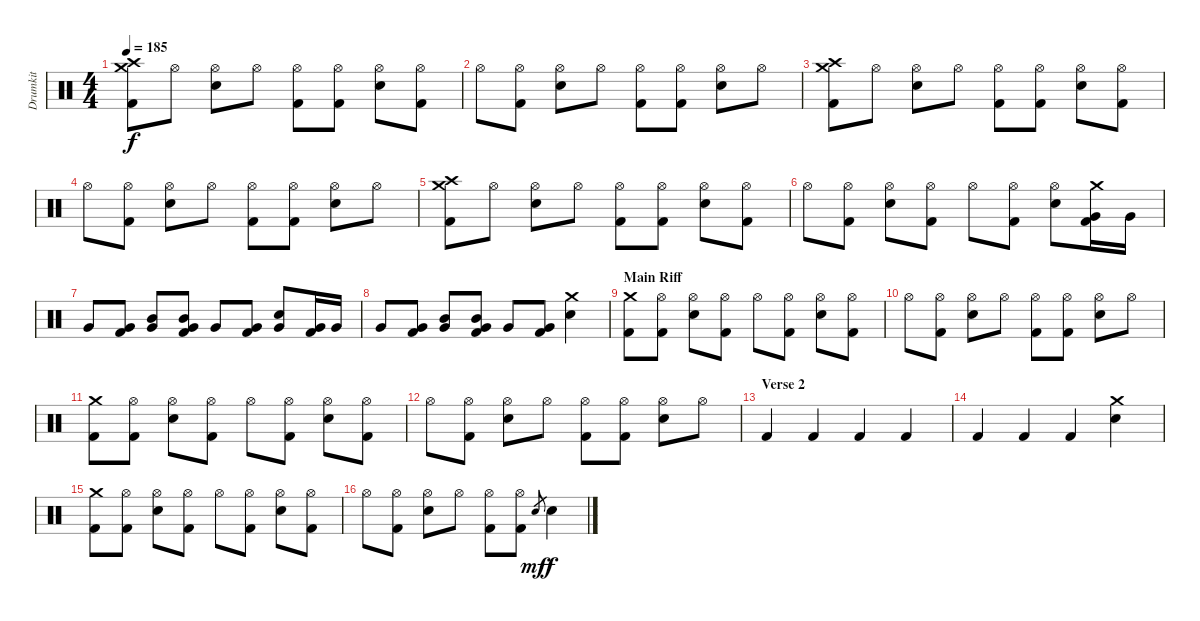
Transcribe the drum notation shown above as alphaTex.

\track ("Drumkit" "Drumkit") {instrument percussion}
\staff {score}
\articulation defaults
\ts (4 4)
\tempo 185
\clef neutral
\ks c
("Crash high (hit)" "Kick (hit) 2" "Crash medium (hit)").8{dy f} "Hi-Hat (open)".8 ("Hi-Hat (open)" "Snare (hit) 2").8 "Hi-Hat (open)".8 ("Hi-Hat (open)" "Kick (hit) 2").8 ("Hi-Hat (open)" "Kick (hit) 2").8 ("Hi-Hat (open)" "Snare (hit) 2").8 ("Hi-Hat (open)" "Kick (hit) 2").8 |
"Hi-Hat (open)".8 ("Hi-Hat (open)" "Kick (hit) 2").8 ("Hi-Hat (open)" "Snare (hit) 2").8 "Hi-Hat (open)".8 ("Hi-Hat (open)" "Kick (hit) 2").8 ("Hi-Hat (open)" "Kick (hit) 2").8 ("Hi-Hat (open)" "Snare (hit) 2").8 "Hi-Hat (open)".8 |
("Crash high (hit)" "Kick (hit) 2" "Crash medium (hit)").8 "Hi-Hat (open)".8 ("Hi-Hat (open)" "Snare (hit) 2").8 "Hi-Hat (open)".8 ("Hi-Hat (open)" "Kick (hit) 2").8 ("Hi-Hat (open)" "Kick (hit) 2").8 ("Hi-Hat (open)" "Snare (hit) 2").8 ("Hi-Hat (open)" "Kick (hit) 2").8 |
"Hi-Hat (open)".8 ("Hi-Hat (open)" "Kick (hit) 2").8 ("Hi-Hat (open)" "Snare (hit) 2").8 "Hi-Hat (open)".8 ("Hi-Hat (open)" "Kick (hit) 2").8 ("Hi-Hat (open)" "Kick (hit) 2").8 ("Hi-Hat (open)" "Snare (hit) 2").8 "Hi-Hat (open)".8 |
("Crash high (hit)" "Kick (hit) 2" "Crash medium (hit)").8 "Hi-Hat (open)".8 ("Hi-Hat (open)" "Snare (hit) 2").8 "Hi-Hat (open)".8 ("Hi-Hat (open)" "Kick (hit) 2").8 ("Hi-Hat (open)" "Kick (hit) 2").8 ("Hi-Hat (open)" "Snare (hit) 2").8 ("Hi-Hat (open)" "Kick (hit) 2").8 |
"Hi-Hat (open)".8 ("Hi-Hat (open)" "Kick (hit) 2").8 ("Hi-Hat (open)" "Snare (hit) 2").8 ("Hi-Hat (open)" "Kick (hit) 2").8 "Hi-Hat (open)".8 ("Hi-Hat (open)" "Kick (hit) 2").8 ("Hi-Hat (open)" "Snare (hit) 2").8 ("Crash medium (hit)" "Very Low Tom (hit)" "Kick (hit) 2").16 "Very Low Tom (hit)".16 |
"Very Low Tom (hit)".8 ("Very Low Tom (hit)" "Kick (hit) 2").8 ("Mid Tom (hit)" "Very Low Tom (hit)").8 ("Mid Tom (hit)" "Very Low Tom (hit)" "Kick (hit) 2").8 "Very Low Tom (hit)".8 ("Very Low Tom (hit)" "Kick (hit) 2").8 ("Very Low Tom (hit)" "Snare (hit) 2").8 ("Very Low Tom (hit)" "Kick (hit) 2").16 "Very Low Tom (hit)".16 |
"Very Low Tom (hit)".8 ("Very Low Tom (hit)" "Kick (hit) 2").8 ("Mid Tom (hit)" "Very Low Tom (hit)").8 ("Mid Tom (hit)" "Very Low Tom (hit)" "Kick (hit) 2").8 "Very Low Tom (hit)".8 ("Very Low Tom (hit)" "Kick (hit) 2").8 ("Snare (hit) 2" "Crash medium (hit)").4 |
\section ("" "Main Riff")
("Crash medium (hit)" "Kick (hit) 2").8 ("Hi-Hat (open)" "Kick (hit) 2").8 ("Hi-Hat (open)" "Snare (hit) 2").8 ("Hi-Hat (open)" "Kick (hit) 2").8 "Hi-Hat (open)".8 ("Hi-Hat (open)" "Kick (hit) 2").8 ("Hi-Hat (open)" "Snare (hit) 2").8 ("Hi-Hat (open)" "Kick (hit) 2").8 |
"Hi-Hat (open)".8 ("Hi-Hat (open)" "Kick (hit) 2").8 ("Hi-Hat (open)" "Snare (hit) 2").8 "Hi-Hat (open)".8 ("Hi-Hat (open)" "Kick (hit) 2").8 ("Hi-Hat (open)" "Kick (hit) 2").8 ("Hi-Hat (open)" "Snare (hit) 2").8 "Hi-Hat (open)".8 |
("Crash medium (hit)" "Kick (hit) 2").8 ("Hi-Hat (open)" "Kick (hit) 2").8 ("Hi-Hat (open)" "Snare (hit) 2").8 ("Hi-Hat (open)" "Kick (hit) 2").8 "Hi-Hat (open)".8 ("Hi-Hat (open)" "Kick (hit) 2").8 ("Hi-Hat (open)" "Snare (hit) 2").8 ("Hi-Hat (open)" "Kick (hit) 2").8 |
"Hi-Hat (open)".8 ("Hi-Hat (open)" "Kick (hit) 2").8 ("Hi-Hat (open)" "Snare (hit) 2").8 "Hi-Hat (open)".8 ("Hi-Hat (open)" "Kick (hit) 2").8 ("Hi-Hat (open)" "Kick (hit) 2").8 ("Hi-Hat (open)" "Snare (hit) 2").8 "Hi-Hat (open)".8 |
\section ("" "Verse 2")
"Kick (hit) 2".4 "Kick (hit) 2".4 "Kick (hit) 2".4 "Kick (hit) 2".4 |
"Kick (hit) 2".4 "Kick (hit) 2".4 "Kick (hit) 2".4 ("Snare (hit) 2" "Crash medium (hit)").4 |
("Crash medium (hit)" "Kick (hit) 2").8 ("Hi-Hat (open)" "Kick (hit) 2").8 ("Hi-Hat (open)" "Snare (hit) 2").8 ("Hi-Hat (open)" "Kick (hit) 2").8 "Hi-Hat (open)".8 ("Hi-Hat (open)" "Kick (hit) 2").8 ("Hi-Hat (open)" "Snare (hit) 2").8 ("Hi-Hat (open)" "Kick (hit) 2").8 |
"Hi-Hat (open)".8 ("Hi-Hat (open)" "Kick (hit) 2").8 ("Hi-Hat (open)" "Snare (hit) 2").8 "Hi-Hat (open)".8 ("Hi-Hat (open)" "Kick (hit) 2").8 ("Hi-Hat (open)" "Kick (hit) 2").8 "Snare (hit)".8{gr dy mf} "Snare (hit) 2".4{dy f}
